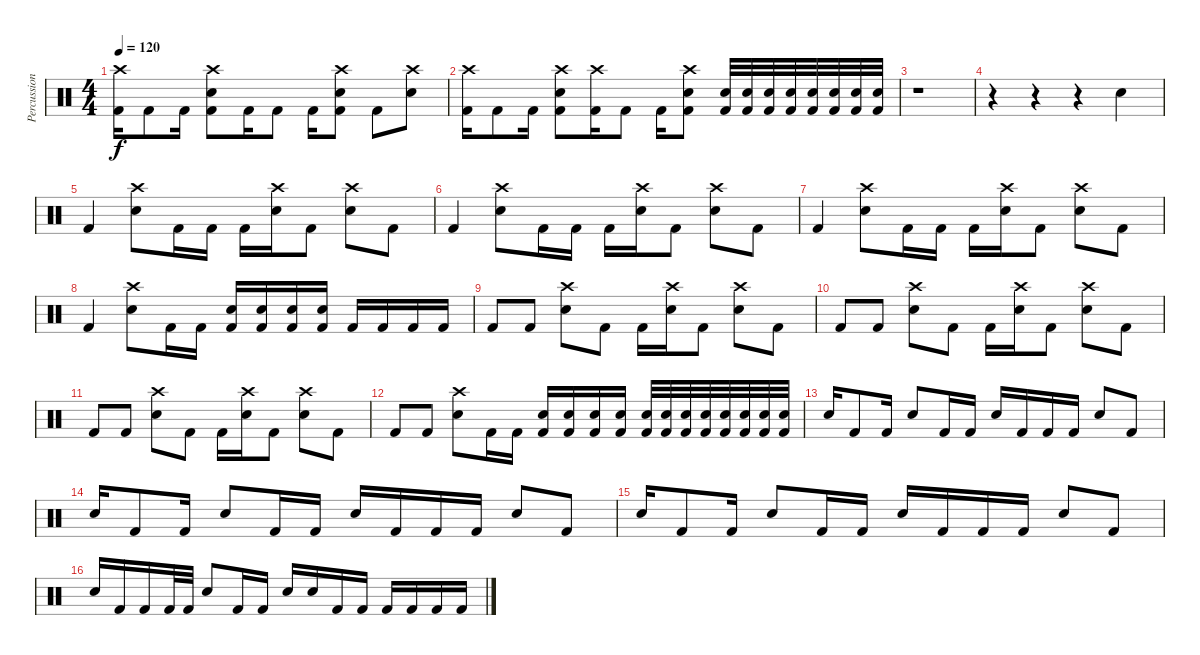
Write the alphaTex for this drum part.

\track ("Percussion" "Percussion") {instrument percussion}
\staff {score}
\articulation defaults
\ts (4 4)
\tempo 120
\clef neutral
\ks c
("Crash high (hit)" "Kick (hit) 2").16{dy f} "Kick (hit) 2".8 "Kick (hit) 2".16 ("Crash high (hit)" "Snare (hit) 2" "Kick (hit) 2").8 "Kick (hit) 2".16 "Kick (hit) 2".8 "Kick (hit) 2".16 ("Crash high (hit)" "Snare (hit) 2" "Kick (hit) 2").8 "Kick (hit) 2".8 ("Crash high (hit)" "Snare (hit) 2").8 |
("Crash high (hit)" "Kick (hit) 2").16 "Kick (hit) 2".8 "Kick (hit) 2".16 ("Crash high (hit)" "Snare (hit) 2" "Kick (hit) 2").8 ("Crash high (hit)" "Kick (hit) 2").16 "Kick (hit) 2".8 "Kick (hit) 2".16 ("Crash high (hit)" "Snare (hit) 2" "Kick (hit) 2").8 ("Snare (hit) 2" "Kick (hit) 2").32 ("Snare (hit) 2" "Kick (hit) 2").32 ("Snare (hit) 2" "Kick (hit) 2").32 ("Snare (hit) 2" "Kick (hit) 2").32 ("Snare (hit) 2" "Kick (hit) 2").32 ("Snare (hit) 2" "Kick (hit) 2").32 ("Snare (hit) 2" "Kick (hit) 2").32 ("Snare (hit) 2" "Kick (hit) 2").32 |
r.1 |
r.4 r.4 r.4 "Snare (hit) 2".4 |
"Kick (hit) 2".4 ("Crash high (hit)" "Snare (hit) 2").8 "Kick (hit) 2".16 "Kick (hit) 2".16 "Kick (hit) 2".16 ("Crash high (hit)" "Snare (hit) 2").16 "Kick (hit) 2".8 ("Crash high (hit)" "Snare (hit) 2").8 "Kick (hit) 2".8 |
"Kick (hit) 2".4 ("Crash high (hit)" "Snare (hit) 2").8 "Kick (hit) 2".16 "Kick (hit) 2".16 "Kick (hit) 2".16 ("Crash high (hit)" "Snare (hit) 2").16 "Kick (hit) 2".8 ("Crash high (hit)" "Snare (hit) 2").8 "Kick (hit) 2".8 |
"Kick (hit) 2".4 ("Crash high (hit)" "Snare (hit) 2").8 "Kick (hit) 2".16 "Kick (hit) 2".16 "Kick (hit) 2".16 ("Crash high (hit)" "Snare (hit) 2").16 "Kick (hit) 2".8 ("Crash high (hit)" "Snare (hit) 2").8 "Kick (hit) 2".8 |
"Kick (hit) 2".4 ("Crash high (hit)" "Snare (hit) 2").8 "Kick (hit) 2".16 "Kick (hit) 2".16 ("Kick (hit) 2" "Snare (hit) 2").16 ("Kick (hit) 2" "Snare (hit) 2").16 ("Kick (hit) 2" "Snare (hit) 2").16 ("Kick (hit) 2" "Snare (hit) 2").16 "Kick (hit) 2".16 "Kick (hit) 2".16 "Kick (hit) 2".16 "Kick (hit) 2".16 |
"Kick (hit) 2".8 "Kick (hit) 2".8 ("Crash high (hit)" "Snare (hit) 2").8 "Kick (hit) 2".8 "Kick (hit) 2".16 ("Crash high (hit)" "Snare (hit) 2").16 "Kick (hit) 2".8 ("Crash high (hit)" "Snare (hit) 2").8 "Kick (hit) 2".8 |
"Kick (hit) 2".8 "Kick (hit) 2".8 ("Crash high (hit)" "Snare (hit) 2").8 "Kick (hit) 2".8 "Kick (hit) 2".16 ("Crash high (hit)" "Snare (hit) 2").16 "Kick (hit) 2".8 ("Crash high (hit)" "Snare (hit) 2").8 "Kick (hit) 2".8 |
"Kick (hit) 2".8 "Kick (hit) 2".8 ("Crash high (hit)" "Snare (hit) 2").8 "Kick (hit) 2".8 "Kick (hit) 2".16 ("Crash high (hit)" "Snare (hit) 2").16 "Kick (hit) 2".8 ("Crash high (hit)" "Snare (hit) 2").8 "Kick (hit) 2".8 |
"Kick (hit) 2".8 "Kick (hit) 2".8 ("Crash high (hit)" "Snare (hit) 2").8 "Kick (hit) 2".16 "Kick (hit) 2".16 ("Kick (hit) 2" "Snare (hit) 2").16 ("Kick (hit) 2" "Snare (hit) 2").16 ("Kick (hit) 2" "Snare (hit) 2").16 ("Kick (hit) 2" "Snare (hit) 2").16 ("Snare (hit) 2" "Kick (hit) 2").32 ("Snare (hit) 2" "Kick (hit) 2").32 ("Snare (hit) 2" "Kick (hit) 2").32 ("Snare (hit) 2" "Kick (hit) 2").32 ("Snare (hit) 2" "Kick (hit) 2").32 ("Snare (hit) 2" "Kick (hit) 2").32 ("Snare (hit) 2" "Kick (hit) 2").32 ("Snare (hit) 2" "Kick (hit) 2").32 |
"Snare (hit) 2".16 "Kick (hit) 2".8 "Kick (hit) 2".16 "Snare (hit) 2".8 "Kick (hit) 2".16 "Kick (hit) 2".16 "Snare (hit) 2".16 "Kick (hit) 2".16 "Kick (hit) 2".16 "Kick (hit) 2".16 "Snare (hit) 2".8 "Kick (hit) 2".8 |
"Snare (hit) 2".16 "Kick (hit) 2".8 "Kick (hit) 2".16 "Snare (hit) 2".8 "Kick (hit) 2".16 "Kick (hit) 2".16 "Snare (hit) 2".16 "Kick (hit) 2".16 "Kick (hit) 2".16 "Kick (hit) 2".16 "Snare (hit) 2".8 "Kick (hit) 2".8 |
"Snare (hit) 2".16 "Kick (hit) 2".8 "Kick (hit) 2".16 "Snare (hit) 2".8 "Kick (hit) 2".16 "Kick (hit) 2".16 "Snare (hit) 2".16 "Kick (hit) 2".16 "Kick (hit) 2".16 "Kick (hit) 2".16 "Snare (hit) 2".8 "Kick (hit) 2".8 |
"Snare (hit) 2".16 "Kick (hit) 2".16 "Kick (hit) 2".16 "Kick (hit) 2".32 "Kick (hit) 2".32 "Snare (hit) 2".8 "Kick (hit) 2".16 "Kick (hit) 2".16 "Snare (hit) 2".16 "Snare (hit) 2".16 "Kick (hit) 2".16 "Kick (hit) 2".16 "Kick (hit) 2".16 "Kick (hit) 2".16 "Kick (hit) 2".16 "Kick (hit) 2".16
